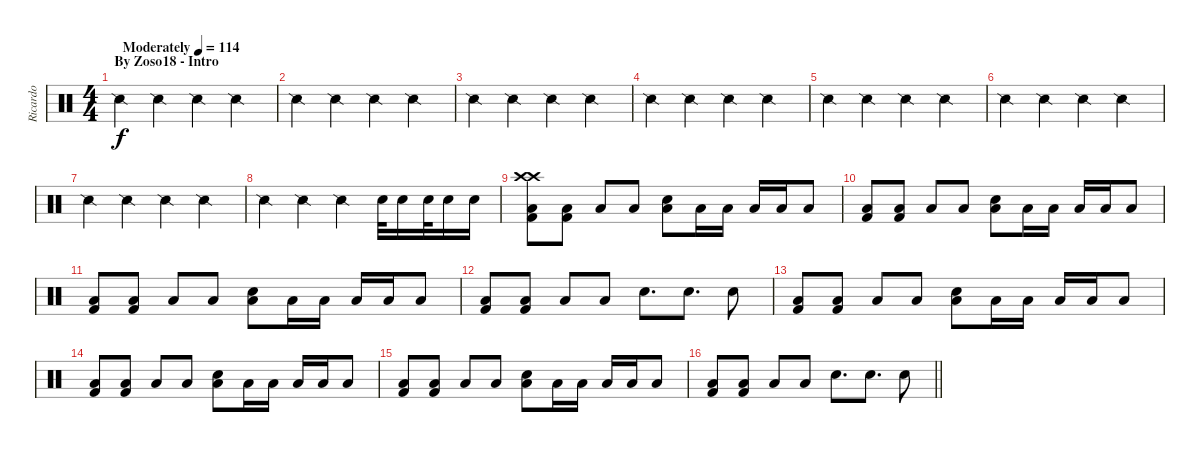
\track ("Ricardo" "Ricardo") {instrument percussion}
\staff {score}
\articulation defaults
\ts (4 4)
\section ("" "By Zoso18 - Intro")
\tempo (114 "Moderately")
\clef neutral
\ks c "Snare (side stick) 2".4{dy f} "Snare (side stick) 2".4 "Snare (side stick) 2".4 "Snare (side stick) 2".4
|
"Snare (side stick) 2".4 "Snare (side stick) 2".4 "Snare (side stick) 2".4 "Snare (side stick) 2".4 |
"Snare (side stick) 2".4 "Snare (side stick) 2".4 "Snare (side stick) 2".4 "Snare (side stick) 2".4 |
"Snare (side stick) 2".4 "Snare (side stick) 2".4 "Snare (side stick) 2".4 "Snare (side stick) 2".4 |
"Snare (side stick) 2".4 "Snare (side stick) 2".4 "Snare (side stick) 2".4 "Snare (side stick) 2".4 |
"Snare (side stick) 2".4 "Snare (side stick) 2".4 "Snare (side stick) 2".4 "Snare (side stick) 2".4 |
"Snare (side stick) 2".4 "Snare (side stick) 2".4 "Snare (side stick) 2".4 "Snare (side stick) 2".4 |
"Snare (side stick) 2".4 "Snare (side stick) 2".4 "Snare (side stick) 2".4 "Snare (hit) 2".32 "Snare (hit) 2".16 "Snare (hit) 2".32 "Snare (hit) 2".16 "Snare (hit) 2".16 |
("Crash high (hit)" "Crash high (hit)" "Kick (hit) 2" "Low Tom (hit)").8 ("Kick (hit) 2" "Low Tom (hit)").8 "Low Tom (hit)".8 "Low Tom (hit)".8 ("Snare (hit) 2" "Low Tom (hit)").8 "Low Tom (hit)".16 "Low Tom (hit)".16 "Low Tom (hit)".16 "Low Tom (hit)".16 "Low Tom (hit)".8 |
("Kick (hit) 2" "Low Tom (hit)").8 ("Kick (hit) 2" "Low Tom (hit)").8 "Low Tom (hit)".8 "Low Tom (hit)".8 ("Snare (hit) 2" "Low Tom (hit)").8 "Low Tom (hit)".16 "Low Tom (hit)".16 "Low Tom (hit)".16 "Low Tom (hit)".16 "Low Tom (hit)".8 |
("Kick (hit) 2" "Low Tom (hit)").8 ("Kick (hit) 2" "Low Tom (hit)").8 "Low Tom (hit)".8 "Low Tom (hit)".8 ("Snare (hit) 2" "Low Tom (hit)").8 "Low Tom (hit)".16 "Low Tom (hit)".16 "Low Tom (hit)".16 "Low Tom (hit)".16 "Low Tom (hit)".8 |
("Kick (hit) 2" "Low Tom (hit)").8 ("Kick (hit) 2" "Low Tom (hit)").8 "Low Tom (hit)".8 "Low Tom (hit)".8 "Snare (hit) 2".8{d} "Snare (hit) 2".8{d} "Snare (hit) 2".8 |
("Kick (hit) 2" "Low Tom (hit)").8 ("Kick (hit) 2" "Low Tom (hit)").8 "Low Tom (hit)".8 "Low Tom (hit)".8 ("Snare (hit) 2" "Low Tom (hit)").8 "Low Tom (hit)".16 "Low Tom (hit)".16 "Low Tom (hit)".16 "Low Tom (hit)".16 "Low Tom (hit)".8 |
("Kick (hit) 2" "Low Tom (hit)").8 ("Kick (hit) 2" "Low Tom (hit)").8 "Low Tom (hit)".8 "Low Tom (hit)".8 ("Snare (hit) 2" "Low Tom (hit)").8 "Low Tom (hit)".16 "Low Tom (hit)".16 "Low Tom (hit)".16 "Low Tom (hit)".16 "Low Tom (hit)".8 |
("Kick (hit) 2" "Low Tom (hit)").8 ("Kick (hit) 2" "Low Tom (hit)").8 "Low Tom (hit)".8 "Low Tom (hit)".8 ("Snare (hit) 2" "Low Tom (hit)").8 "Low Tom (hit)".16 "Low Tom (hit)".16 "Low Tom (hit)".16 "Low Tom (hit)".16 "Low Tom (hit)".8 |
\barLineRight lightlight
("Kick (hit) 2" "Low Tom (hit)").8 ("Kick (hit) 2" "Low Tom (hit)").8 "Low Tom (hit)".8 "Low Tom (hit)".8 "Snare (hit) 2".8{d} "Snare (hit) 2".8{d} "Snare (hit) 2".8
